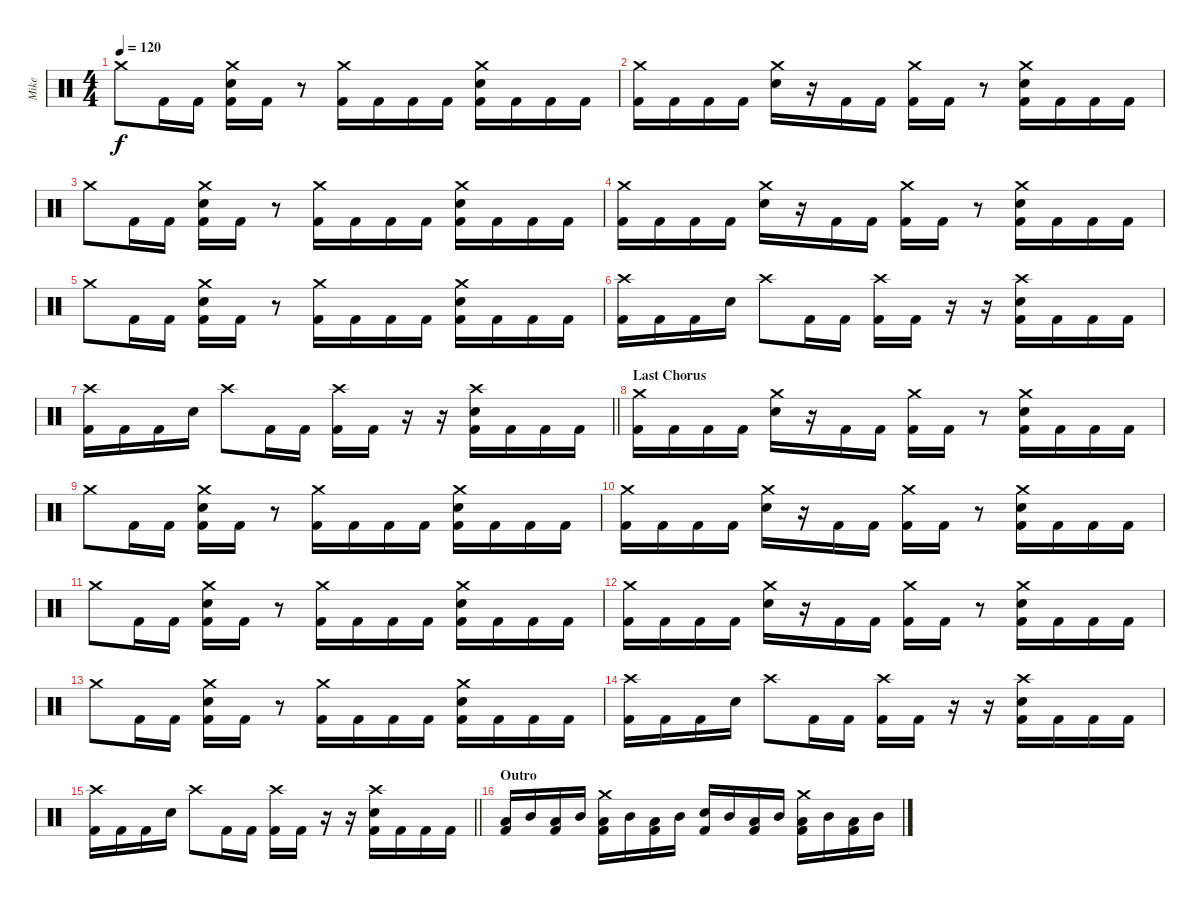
\track ("Mike" "Mike") {instrument percussion}
\staff {score}
\articulation defaults
\ts (4 4)
\tempo 120
\clef neutral
\ks c "Crash medium (hit)".8{dy f} "Kick (hit) 2".16 "Kick (hit) 2".16
("Crash medium (hit)" "Snare (hit) 2" "Kick (hit) 2").16 "Kick (hit) 2".16 r.8 ("Crash medium (hit)" "Kick (hit) 2").16 "Kick (hit) 2".16 "Kick (hit) 2".16 "Kick (hit) 2".16 ("Crash medium (hit)" "Snare (hit) 2" "Kick (hit) 2").16 "Kick (hit) 2".16 "Kick (hit) 2".16 "Kick (hit) 2".16 |
("Crash medium (hit)" "Kick (hit) 2").16 "Kick (hit) 2".16 "Kick (hit) 2".16 "Kick (hit) 2".16 ("Crash medium (hit)" "Snare (hit) 2").16 r.16 "Kick (hit) 2".16 "Kick (hit) 2".16 ("Crash medium (hit)" "Kick (hit) 2").16 "Kick (hit) 2".16 r.8 ("Crash medium (hit)" "Snare (hit) 2" "Kick (hit) 2").16 "Kick (hit) 2".16 "Kick (hit) 2".16 "Kick (hit) 2".16 |
"Crash medium (hit)".8 "Kick (hit) 2".16 "Kick (hit) 2".16 ("Crash medium (hit)" "Snare (hit) 2" "Kick (hit) 2").16 "Kick (hit) 2".16 r.8 ("Crash medium (hit)" "Kick (hit) 2").16 "Kick (hit) 2".16 "Kick (hit) 2".16 "Kick (hit) 2".16 ("Crash medium (hit)" "Snare (hit) 2" "Kick (hit) 2").16 "Kick (hit) 2".16 "Kick (hit) 2".16 "Kick (hit) 2".16 |
("Crash medium (hit)" "Kick (hit) 2").16 "Kick (hit) 2".16 "Kick (hit) 2".16 "Kick (hit) 2".16 ("Crash medium (hit)" "Snare (hit) 2").16 r.16 "Kick (hit) 2".16 "Kick (hit) 2".16 ("Crash medium (hit)" "Kick (hit) 2").16 "Kick (hit) 2".16 r.8 ("Crash medium (hit)" "Snare (hit) 2" "Kick (hit) 2").16 "Kick (hit) 2".16 "Kick (hit) 2".16 "Kick (hit) 2".16 |
"Crash medium (hit)".8 "Kick (hit) 2".16 "Kick (hit) 2".16 ("Crash medium (hit)" "Snare (hit) 2" "Kick (hit) 2").16 "Kick (hit) 2".16 r.8 ("Crash medium (hit)" "Kick (hit) 2").16 "Kick (hit) 2".16 "Kick (hit) 2".16 "Kick (hit) 2".16 ("Crash medium (hit)" "Snare (hit) 2" "Kick (hit) 2").16 "Kick (hit) 2".16 "Kick (hit) 2".16 "Kick (hit) 2".16 |
("Crash high (hit)" "Kick (hit) 2").16 "Kick (hit) 2".16 "Kick (hit) 2".16 "Snare (hit) 2".16 "Crash high (hit)".8 "Kick (hit) 2".16 "Kick (hit) 2".16 ("Crash high (hit)" "Kick (hit) 2").16 "Kick (hit) 2".16 r.16 r.16 ("Crash high (hit)" "Snare (hit) 2" "Kick (hit) 2").16 "Kick (hit) 2".16 "Kick (hit) 2".16 "Kick (hit) 2".16 |
\barLineRight lightlight
("Crash high (hit)" "Kick (hit) 2").16 "Kick (hit) 2".16 "Kick (hit) 2".16 "Snare (hit) 2".16 "Crash high (hit)".8 "Kick (hit) 2".16 "Kick (hit) 2".16 ("Crash high (hit)" "Kick (hit) 2").16 "Kick (hit) 2".16 r.16 r.16 ("Crash high (hit)" "Snare (hit) 2" "Kick (hit) 2").16 "Kick (hit) 2".16 "Kick (hit) 2".16 "Kick (hit) 2".16 |
\section ("" "Last Chorus")
("Crash medium (hit)" "Kick (hit) 2").16 "Kick (hit) 2".16 "Kick (hit) 2".16 "Kick (hit) 2".16 ("Crash medium (hit)" "Snare (hit) 2").16 r.16 "Kick (hit) 2".16 "Kick (hit) 2".16 ("Crash medium (hit)" "Kick (hit) 2").16 "Kick (hit) 2".16 r.8 ("Crash medium (hit)" "Snare (hit) 2" "Kick (hit) 2").16 "Kick (hit) 2".16 "Kick (hit) 2".16 "Kick (hit) 2".16 |
"Crash medium (hit)".8 "Kick (hit) 2".16 "Kick (hit) 2".16 ("Crash medium (hit)" "Snare (hit) 2" "Kick (hit) 2").16 "Kick (hit) 2".16 r.8 ("Crash medium (hit)" "Kick (hit) 2").16 "Kick (hit) 2".16 "Kick (hit) 2".16 "Kick (hit) 2".16 ("Crash medium (hit)" "Snare (hit) 2" "Kick (hit) 2").16 "Kick (hit) 2".16 "Kick (hit) 2".16 "Kick (hit) 2".16 |
("Crash medium (hit)" "Kick (hit) 2").16 "Kick (hit) 2".16 "Kick (hit) 2".16 "Kick (hit) 2".16 ("Crash medium (hit)" "Snare (hit) 2").16 r.16 "Kick (hit) 2".16 "Kick (hit) 2".16 ("Crash medium (hit)" "Kick (hit) 2").16 "Kick (hit) 2".16 r.8 ("Crash medium (hit)" "Snare (hit) 2" "Kick (hit) 2").16 "Kick (hit) 2".16 "Kick (hit) 2".16 "Kick (hit) 2".16 |
"Crash medium (hit)".8 "Kick (hit) 2".16 "Kick (hit) 2".16 ("Crash medium (hit)" "Snare (hit) 2" "Kick (hit) 2").16 "Kick (hit) 2".16 r.8 ("Crash medium (hit)" "Kick (hit) 2").16 "Kick (hit) 2".16 "Kick (hit) 2".16 "Kick (hit) 2".16 ("Crash medium (hit)" "Snare (hit) 2" "Kick (hit) 2").16 "Kick (hit) 2".16 "Kick (hit) 2".16 "Kick (hit) 2".16 |
("Crash medium (hit)" "Kick (hit) 2").16 "Kick (hit) 2".16 "Kick (hit) 2".16 "Kick (hit) 2".16 ("Crash medium (hit)" "Snare (hit) 2").16 r.16 "Kick (hit) 2".16 "Kick (hit) 2".16 ("Crash medium (hit)" "Kick (hit) 2").16 "Kick (hit) 2".16 r.8 ("Crash medium (hit)" "Snare (hit) 2" "Kick (hit) 2").16 "Kick (hit) 2".16 "Kick (hit) 2".16 "Kick (hit) 2".16 |
"Crash medium (hit)".8 "Kick (hit) 2".16 "Kick (hit) 2".16 ("Crash medium (hit)" "Snare (hit) 2" "Kick (hit) 2").16 "Kick (hit) 2".16 r.8 ("Crash medium (hit)" "Kick (hit) 2").16 "Kick (hit) 2".16 "Kick (hit) 2".16 "Kick (hit) 2".16 ("Crash medium (hit)" "Snare (hit) 2" "Kick (hit) 2").16 "Kick (hit) 2".16 "Kick (hit) 2".16 "Kick (hit) 2".16 |
("Crash high (hit)" "Kick (hit) 2").16 "Kick (hit) 2".16 "Kick (hit) 2".16 "Snare (hit) 2".16 "Crash high (hit)".8 "Kick (hit) 2".16 "Kick (hit) 2".16 ("Crash high (hit)" "Kick (hit) 2").16 "Kick (hit) 2".16 r.16 r.16 ("Crash high (hit)" "Snare (hit) 2" "Kick (hit) 2").16 "Kick (hit) 2".16 "Kick (hit) 2".16 "Kick (hit) 2".16 |
\barLineRight lightlight
("Crash high (hit)" "Kick (hit) 2").16 "Kick (hit) 2".16 "Kick (hit) 2".16 "Snare (hit) 2".16 "Crash high (hit)".8 "Kick (hit) 2".16 "Kick (hit) 2".16 ("Crash high (hit)" "Kick (hit) 2").16 "Kick (hit) 2".16 r.16 r.16 ("Crash high (hit)" "Snare (hit) 2" "Kick (hit) 2").16 "Kick (hit) 2".16 "Kick (hit) 2".16 "Kick (hit) 2".16 |
\section ("" "Outro")
("Low Tom (hit)" "Kick (hit) 2").16 "Mid Tom (hit)".16 ("Low Tom (hit)" "Kick (hit) 2").16 "Mid Tom (hit)".16 ("Crash medium (hit)" "Low Tom (hit)" "Kick (hit) 2").16 "Mid Tom (hit)".16 ("Low Tom (hit)" "Kick (hit) 2").16 "Mid Tom (hit)".16 ("Snare (hit) 2" "Kick (hit) 2").16 "Mid Tom (hit)".16 ("Low Tom (hit)" "Kick (hit) 2").16 "Mid Tom (hit)".16 ("Crash medium (hit)" "Low Tom (hit)" "Kick (hit) 2").16 "Mid Tom (hit)".16 ("Low Tom (hit)" "Kick (hit) 2").16 "Mid Tom (hit)".16
